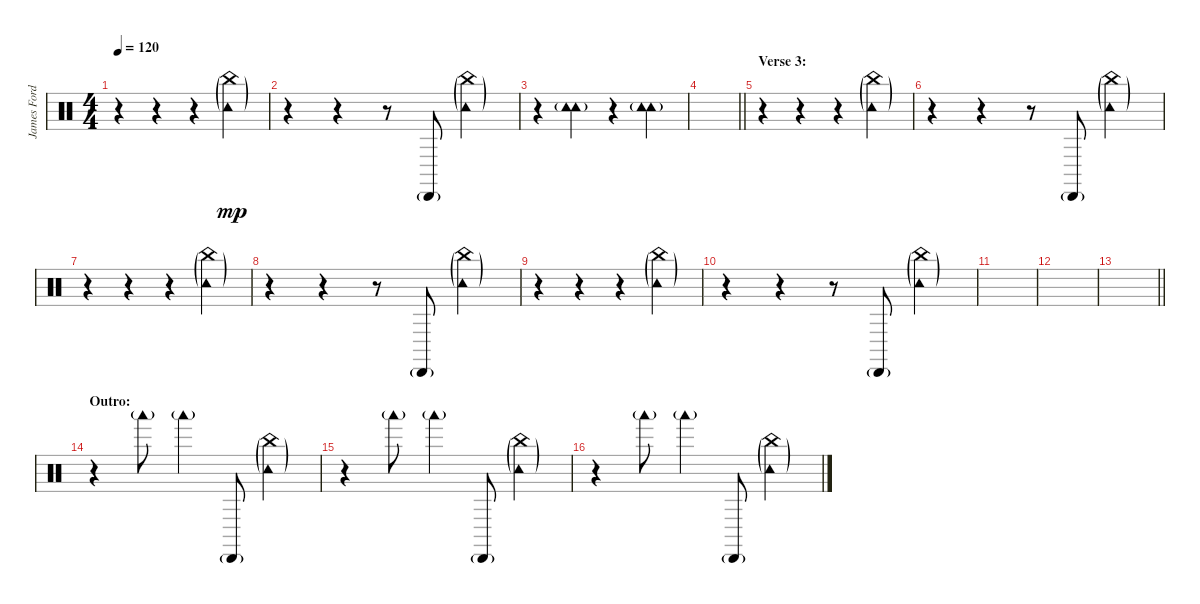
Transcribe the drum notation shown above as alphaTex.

\track ("James Ford (Percussion)" "James Ford") {instrument percussion}
\staff {score}
\articulation defaults
\ts (4 4)
\tempo 120
\clef neutral
\ks c
r.4{dy mp} r.4 r.4 ("China (hit)"{g} "Tambourine (hit)"{g}).4 |
r.4 r.4 r.8 "Cabasa (hit)"{g}.8 ("China (hit)"{g} "Tambourine (hit)"{g}).4 |
r.4 ("Tambourine (hit)"{g} "Tambourine (hit)"{g}).4 r.4 ("Tambourine (hit)"{g} "Tambourine (hit)"{g}).4 |
\barLineRight lightlight
|
\section ("" "Verse 3:")
r.4 r.4 r.4 ("China (hit)"{g} "Tambourine (hit)"{g}).4 |
r.4 r.4 r.8 "Cabasa (hit)"{g}.8 ("China (hit)"{g} "Tambourine (hit)"{g}).4 |
r.4 r.4 r.4 ("China (hit)"{g} "Tambourine (hit)"{g}).4 |
r.4 r.4 r.8 "Cabasa (hit)"{g}.8 ("China (hit)"{g} "Tambourine (hit)"{g}).4 |
r.4 r.4 r.4 ("China (hit)"{g} "Tambourine (hit)"{g}).4 |
r.4 r.4 r.8 "Cabasa (hit)"{g}.8 ("China (hit)"{g} "Tambourine (hit)"{g}).4 |
|
|
\barLineRight lightlight
|
\section ("" "Outro:")
r.4 "Woodblock low (hit)"{g}.8 "Woodblock low (hit)"{g}.4 "Cabasa (hit)"{g}.8 ("China (hit)"{g} "Tambourine (hit)"{g}).4 |
r.4 "Woodblock low (hit)"{g}.8 "Woodblock low (hit)"{g}.4 "Cabasa (hit)"{g}.8 ("China (hit)"{g} "Tambourine (hit)"{g}).4 |
r.4 "Woodblock low (hit)"{g}.8 "Woodblock low (hit)"{g}.4 "Cabasa (hit)"{g}.8 ("China (hit)"{g} "Tambourine (hit)"{g}).4
